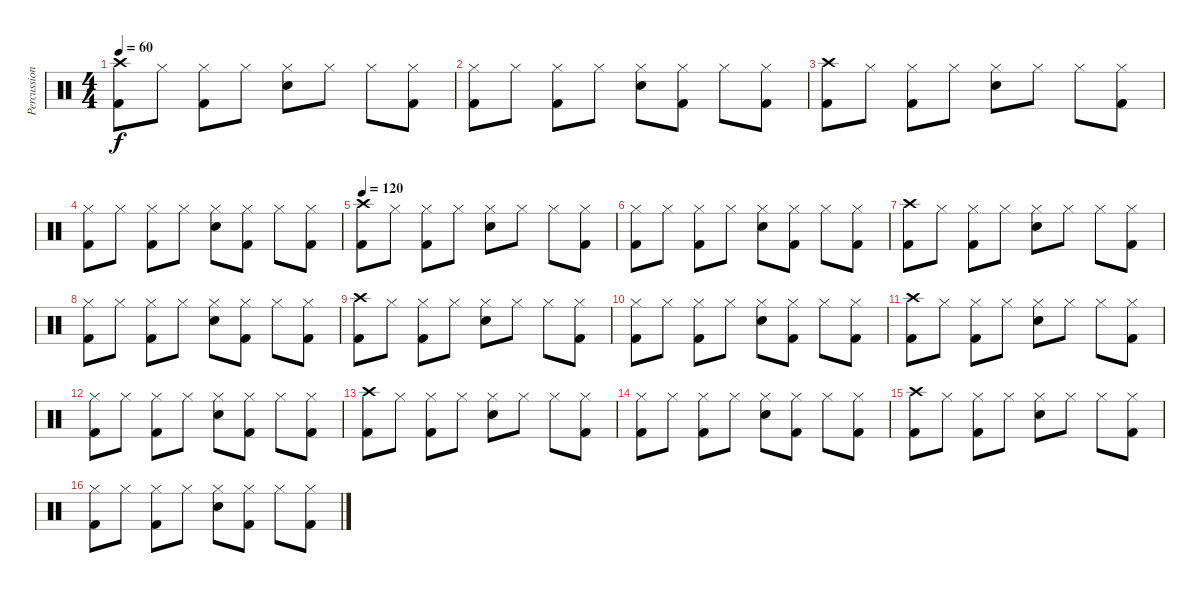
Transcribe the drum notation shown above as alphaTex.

\track ("Percussion" "Percussion") {instrument percussion}
\staff {score}
\articulation defaults
\ts (4 4)
\tempo 60
\clef neutral
\ks c
("Crash high (hit)" "Kick (hit) 2").8{dy f} "Hi-Hat (closed)".8 ("Hi-Hat (closed)" "Kick (hit) 2").8 "Hi-Hat (closed)".8 ("Hi-Hat (closed)" "Snare (hit) 2").8 "Hi-Hat (closed)".8 "Hi-Hat (closed)".8 ("Hi-Hat (closed)" "Kick (hit) 2").8 |
("Hi-Hat (closed)" "Kick (hit) 2").8 "Hi-Hat (closed)".8 ("Hi-Hat (closed)" "Kick (hit) 2").8 "Hi-Hat (closed)".8 ("Hi-Hat (closed)" "Snare (hit) 2").8 ("Hi-Hat (closed)" "Kick (hit) 2").8 "Hi-Hat (closed)".8 ("Hi-Hat (closed)" "Kick (hit) 2").8 |
("Crash high (hit)" "Kick (hit) 2").8 "Hi-Hat (closed)".8 ("Hi-Hat (closed)" "Kick (hit) 2").8 "Hi-Hat (closed)".8 ("Hi-Hat (closed)" "Snare (hit) 2").8 "Hi-Hat (closed)".8 "Hi-Hat (closed)".8 ("Hi-Hat (closed)" "Kick (hit) 2").8 |
("Hi-Hat (closed)" "Kick (hit) 2").8 "Hi-Hat (closed)".8 ("Hi-Hat (closed)" "Kick (hit) 2").8 "Hi-Hat (closed)".8 ("Hi-Hat (closed)" "Snare (hit) 2").8 ("Hi-Hat (closed)" "Kick (hit) 2").8 "Hi-Hat (closed)".8 ("Hi-Hat (closed)" "Kick (hit) 2").8 |
\tempo 120
("Crash high (hit)" "Kick (hit) 2").8 "Hi-Hat (closed)".8 ("Hi-Hat (closed)" "Kick (hit) 2").8 "Hi-Hat (closed)".8 ("Hi-Hat (closed)" "Snare (hit) 2").8 "Hi-Hat (closed)".8 "Hi-Hat (closed)".8 ("Hi-Hat (closed)" "Kick (hit) 2").8 |
("Hi-Hat (closed)" "Kick (hit) 2").8 "Hi-Hat (closed)".8 ("Hi-Hat (closed)" "Kick (hit) 2").8 "Hi-Hat (closed)".8 ("Hi-Hat (closed)" "Snare (hit) 2").8 ("Hi-Hat (closed)" "Kick (hit) 2").8 "Hi-Hat (closed)".8 ("Hi-Hat (closed)" "Kick (hit) 2").8 |
("Crash high (hit)" "Kick (hit) 2").8 "Hi-Hat (closed)".8 ("Hi-Hat (closed)" "Kick (hit) 2").8 "Hi-Hat (closed)".8 ("Hi-Hat (closed)" "Snare (hit) 2").8 "Hi-Hat (closed)".8 "Hi-Hat (closed)".8 ("Hi-Hat (closed)" "Kick (hit) 2").8 |
("Hi-Hat (closed)" "Kick (hit) 2").8 "Hi-Hat (closed)".8 ("Hi-Hat (closed)" "Kick (hit) 2").8 "Hi-Hat (closed)".8 ("Hi-Hat (closed)" "Snare (hit) 2").8 ("Hi-Hat (closed)" "Kick (hit) 2").8 "Hi-Hat (closed)".8 ("Hi-Hat (closed)" "Kick (hit) 2").8 |
("Crash high (hit)" "Kick (hit) 2").8 "Hi-Hat (closed)".8 ("Hi-Hat (closed)" "Kick (hit) 2").8 "Hi-Hat (closed)".8 ("Hi-Hat (closed)" "Snare (hit) 2").8 "Hi-Hat (closed)".8 "Hi-Hat (closed)".8 ("Hi-Hat (closed)" "Kick (hit) 2").8 |
("Hi-Hat (closed)" "Kick (hit) 2").8 "Hi-Hat (closed)".8 ("Hi-Hat (closed)" "Kick (hit) 2").8 "Hi-Hat (closed)".8 ("Hi-Hat (closed)" "Snare (hit) 2").8 ("Hi-Hat (closed)" "Kick (hit) 2").8 "Hi-Hat (closed)".8 ("Hi-Hat (closed)" "Kick (hit) 2").8 |
("Crash high (hit)" "Kick (hit) 2").8 "Hi-Hat (closed)".8 ("Hi-Hat (closed)" "Kick (hit) 2").8 "Hi-Hat (closed)".8 ("Hi-Hat (closed)" "Snare (hit) 2").8 "Hi-Hat (closed)".8 "Hi-Hat (closed)".8 ("Hi-Hat (closed)" "Kick (hit) 2").8 |
("Hi-Hat (closed)" "Kick (hit) 2").8 "Hi-Hat (closed)".8 ("Hi-Hat (closed)" "Kick (hit) 2").8 "Hi-Hat (closed)".8 ("Hi-Hat (closed)" "Snare (hit) 2").8 ("Hi-Hat (closed)" "Kick (hit) 2").8 "Hi-Hat (closed)".8 ("Hi-Hat (closed)" "Kick (hit) 2").8 |
("Crash high (hit)" "Kick (hit) 2").8 "Hi-Hat (closed)".8 ("Hi-Hat (closed)" "Kick (hit) 2").8 "Hi-Hat (closed)".8 ("Hi-Hat (closed)" "Snare (hit) 2").8 "Hi-Hat (closed)".8 "Hi-Hat (closed)".8 ("Hi-Hat (closed)" "Kick (hit) 2").8 |
("Hi-Hat (closed)" "Kick (hit) 2").8 "Hi-Hat (closed)".8 ("Hi-Hat (closed)" "Kick (hit) 2").8 "Hi-Hat (closed)".8 ("Hi-Hat (closed)" "Snare (hit) 2").8 ("Hi-Hat (closed)" "Kick (hit) 2").8 "Hi-Hat (closed)".8 ("Hi-Hat (closed)" "Kick (hit) 2").8 |
("Crash high (hit)" "Kick (hit) 2").8 "Hi-Hat (closed)".8 ("Hi-Hat (closed)" "Kick (hit) 2").8 "Hi-Hat (closed)".8 ("Hi-Hat (closed)" "Snare (hit) 2").8 "Hi-Hat (closed)".8 "Hi-Hat (closed)".8 ("Hi-Hat (closed)" "Kick (hit) 2").8 |
("Hi-Hat (closed)" "Kick (hit) 2").8 "Hi-Hat (closed)".8 ("Hi-Hat (closed)" "Kick (hit) 2").8 "Hi-Hat (closed)".8 ("Hi-Hat (closed)" "Snare (hit) 2").8 ("Hi-Hat (closed)" "Kick (hit) 2").8 "Hi-Hat (closed)".8 ("Hi-Hat (closed)" "Kick (hit) 2").8
